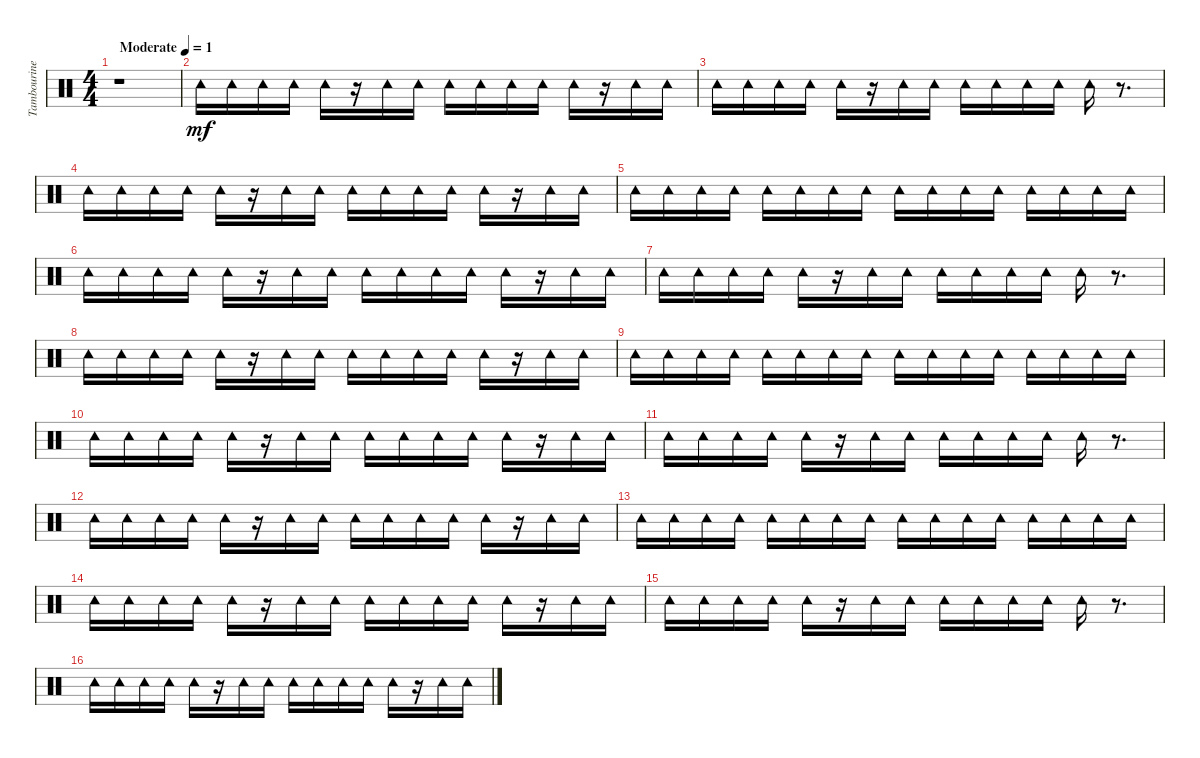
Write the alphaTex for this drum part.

\track ("Tambourine" "Tambourine") {instrument percussion}
\staff {score}
\articulation defaults
\ts (4 4)
\tempo (1 "Moderate")
\clef neutral
\ks c
r.1{dy mf} |
"Tambourine (hit)".16 "Tambourine (hit)".16 "Tambourine (hit)".16 "Tambourine (hit)".16 "Tambourine (hit)".16 r.16 "Tambourine (hit)".16 "Tambourine (hit)".16 "Tambourine (hit)".16 "Tambourine (hit)".16 "Tambourine (hit)".16 "Tambourine (hit)".16 "Tambourine (hit)".16 r.16 "Tambourine (hit)".16 "Tambourine (hit)".16 |
"Tambourine (hit)".16 "Tambourine (hit)".16 "Tambourine (hit)".16 "Tambourine (hit)".16 "Tambourine (hit)".16 r.16 "Tambourine (hit)".16 "Tambourine (hit)".16 "Tambourine (hit)".16 "Tambourine (hit)".16 "Tambourine (hit)".16 "Tambourine (hit)".16 "Tambourine (hit)".16 r.8{d} |
"Tambourine (hit)".16 "Tambourine (hit)".16 "Tambourine (hit)".16 "Tambourine (hit)".16 "Tambourine (hit)".16 r.16 "Tambourine (hit)".16 "Tambourine (hit)".16 "Tambourine (hit)".16 "Tambourine (hit)".16 "Tambourine (hit)".16 "Tambourine (hit)".16 "Tambourine (hit)".16 r.16 "Tambourine (hit)".16 "Tambourine (hit)".16 |
"Tambourine (hit)".16 "Tambourine (hit)".16 "Tambourine (hit)".16 "Tambourine (hit)".16 "Tambourine (hit)".16 "Tambourine (hit)".16 "Tambourine (hit)".16 "Tambourine (hit)".16 "Tambourine (hit)".16 "Tambourine (hit)".16 "Tambourine (hit)".16 "Tambourine (hit)".16 "Tambourine (hit)".16 "Tambourine (hit)".16 "Tambourine (hit)".16 "Tambourine (hit)".16 |
"Tambourine (hit)".16 "Tambourine (hit)".16 "Tambourine (hit)".16 "Tambourine (hit)".16 "Tambourine (hit)".16 r.16 "Tambourine (hit)".16 "Tambourine (hit)".16 "Tambourine (hit)".16 "Tambourine (hit)".16 "Tambourine (hit)".16 "Tambourine (hit)".16 "Tambourine (hit)".16 r.16 "Tambourine (hit)".16 "Tambourine (hit)".16 |
"Tambourine (hit)".16 "Tambourine (hit)".16 "Tambourine (hit)".16 "Tambourine (hit)".16 "Tambourine (hit)".16 r.16 "Tambourine (hit)".16 "Tambourine (hit)".16 "Tambourine (hit)".16 "Tambourine (hit)".16 "Tambourine (hit)".16 "Tambourine (hit)".16 "Tambourine (hit)".16 r.8{d} |
"Tambourine (hit)".16 "Tambourine (hit)".16 "Tambourine (hit)".16 "Tambourine (hit)".16 "Tambourine (hit)".16 r.16 "Tambourine (hit)".16 "Tambourine (hit)".16 "Tambourine (hit)".16 "Tambourine (hit)".16 "Tambourine (hit)".16 "Tambourine (hit)".16 "Tambourine (hit)".16 r.16 "Tambourine (hit)".16 "Tambourine (hit)".16 |
"Tambourine (hit)".16 "Tambourine (hit)".16 "Tambourine (hit)".16 "Tambourine (hit)".16 "Tambourine (hit)".16 "Tambourine (hit)".16 "Tambourine (hit)".16 "Tambourine (hit)".16 "Tambourine (hit)".16 "Tambourine (hit)".16 "Tambourine (hit)".16 "Tambourine (hit)".16 "Tambourine (hit)".16 "Tambourine (hit)".16 "Tambourine (hit)".16 "Tambourine (hit)".16 |
"Tambourine (hit)".16 "Tambourine (hit)".16 "Tambourine (hit)".16 "Tambourine (hit)".16 "Tambourine (hit)".16 r.16 "Tambourine (hit)".16 "Tambourine (hit)".16 "Tambourine (hit)".16 "Tambourine (hit)".16 "Tambourine (hit)".16 "Tambourine (hit)".16 "Tambourine (hit)".16 r.16 "Tambourine (hit)".16 "Tambourine (hit)".16 |
"Tambourine (hit)".16 "Tambourine (hit)".16 "Tambourine (hit)".16 "Tambourine (hit)".16 "Tambourine (hit)".16 r.16 "Tambourine (hit)".16 "Tambourine (hit)".16 "Tambourine (hit)".16 "Tambourine (hit)".16 "Tambourine (hit)".16 "Tambourine (hit)".16 "Tambourine (hit)".16 r.8{d} |
"Tambourine (hit)".16 "Tambourine (hit)".16 "Tambourine (hit)".16 "Tambourine (hit)".16 "Tambourine (hit)".16 r.16 "Tambourine (hit)".16 "Tambourine (hit)".16 "Tambourine (hit)".16 "Tambourine (hit)".16 "Tambourine (hit)".16 "Tambourine (hit)".16 "Tambourine (hit)".16 r.16 "Tambourine (hit)".16 "Tambourine (hit)".16 |
"Tambourine (hit)".16 "Tambourine (hit)".16 "Tambourine (hit)".16 "Tambourine (hit)".16 "Tambourine (hit)".16 "Tambourine (hit)".16 "Tambourine (hit)".16 "Tambourine (hit)".16 "Tambourine (hit)".16 "Tambourine (hit)".16 "Tambourine (hit)".16 "Tambourine (hit)".16 "Tambourine (hit)".16 "Tambourine (hit)".16 "Tambourine (hit)".16 "Tambourine (hit)".16 |
"Tambourine (hit)".16 "Tambourine (hit)".16 "Tambourine (hit)".16 "Tambourine (hit)".16 "Tambourine (hit)".16 r.16 "Tambourine (hit)".16 "Tambourine (hit)".16 "Tambourine (hit)".16 "Tambourine (hit)".16 "Tambourine (hit)".16 "Tambourine (hit)".16 "Tambourine (hit)".16 r.16 "Tambourine (hit)".16 "Tambourine (hit)".16 |
"Tambourine (hit)".16 "Tambourine (hit)".16 "Tambourine (hit)".16 "Tambourine (hit)".16 "Tambourine (hit)".16 r.16 "Tambourine (hit)".16 "Tambourine (hit)".16 "Tambourine (hit)".16 "Tambourine (hit)".16 "Tambourine (hit)".16 "Tambourine (hit)".16 "Tambourine (hit)".16 r.8{d} |
"Tambourine (hit)".16 "Tambourine (hit)".16 "Tambourine (hit)".16 "Tambourine (hit)".16 "Tambourine (hit)".16 r.16 "Tambourine (hit)".16 "Tambourine (hit)".16 "Tambourine (hit)".16 "Tambourine (hit)".16 "Tambourine (hit)".16 "Tambourine (hit)".16 "Tambourine (hit)".16 r.16 "Tambourine (hit)".16 "Tambourine (hit)".16
